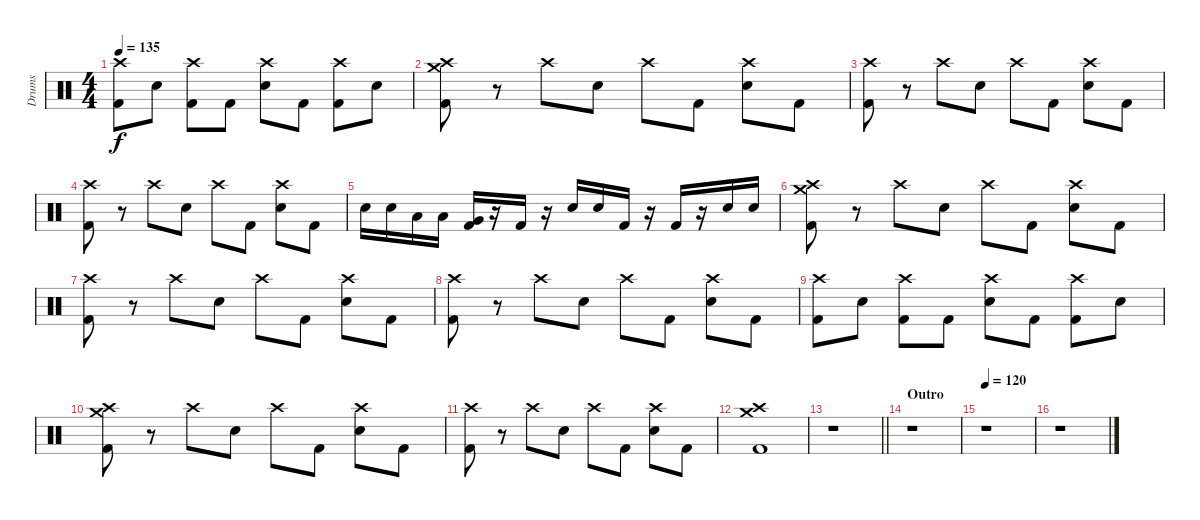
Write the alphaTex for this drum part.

\track ("Drums" "Drums") {instrument percussion}
\staff {score}
\articulation defaults
\ts (4 4)
\tempo 135
\clef neutral
\ks c
("Crash high (hit)" "Kick (hit) 2").8{dy f} "Electric Snare (hit)".8 ("Crash high (hit)" "Kick (hit) 2").8 "Kick (hit) 2".8 ("Crash high (hit)" "Electric Snare (hit)").8 "Kick (hit) 2".8 ("Crash high (hit)" "Kick (hit) 2").8 "Electric Snare (hit)".8 |
("Crash high (hit)" "Crash medium (hit)" "Kick (hit) 2").8 r.8 "Crash high (hit)".8 "Electric Snare (hit)".8 "Crash high (hit)".8 "Kick (hit) 2".8 ("Crash high (hit)" "Electric Snare (hit)").8 "Kick (hit) 2".8 |
("Crash high (hit)" "Kick (hit) 2").8 r.8 "Crash high (hit)".8 "Electric Snare (hit)".8 "Crash high (hit)".8 "Kick (hit) 2".8 ("Crash high (hit)" "Electric Snare (hit)").8 "Kick (hit) 2".8 |
("Crash high (hit)" "Kick (hit) 2").8 r.8 "Crash high (hit)".8 "Electric Snare (hit)".8 "Crash high (hit)".8 "Kick (hit) 2".8 ("Crash high (hit)" "Electric Snare (hit)").8 "Kick (hit) 2".8 |
"Electric Snare (hit)".16 "Electric Snare (hit)".16 "Low Tom (hit)".16 "Low Tom (hit)".16 ("Very Low Tom (hit)" "Kick (hit) 2").16 r.16 "Kick (hit) 2".16 r.16 "Electric Snare (hit)".16 "Electric Snare (hit)".16 "Kick (hit) 2".16 r.16 "Kick (hit) 2".16 r.16 "Electric Snare (hit)".16 "Electric Snare (hit)".16 |
("Crash high (hit)" "Crash medium (hit)" "Kick (hit) 2").8 r.8 "Crash high (hit)".8 "Electric Snare (hit)".8 "Crash high (hit)".8 "Kick (hit) 2".8 ("Crash high (hit)" "Electric Snare (hit)").8 "Kick (hit) 2".8 |
("Crash high (hit)" "Kick (hit) 2").8 r.8 "Crash high (hit)".8 "Electric Snare (hit)".8 "Crash high (hit)".8 "Kick (hit) 2".8 ("Crash high (hit)" "Electric Snare (hit)").8 "Kick (hit) 2".8 |
("Crash high (hit)" "Kick (hit) 2").8 r.8 "Crash high (hit)".8 "Electric Snare (hit)".8 "Crash high (hit)".8 "Kick (hit) 2".8 ("Crash high (hit)" "Electric Snare (hit)").8 "Kick (hit) 2".8 |
("Crash high (hit)" "Kick (hit) 2").8 "Electric Snare (hit)".8 ("Crash high (hit)" "Kick (hit) 2").8 "Kick (hit) 2".8 ("Crash high (hit)" "Electric Snare (hit)").8 "Kick (hit) 2".8 ("Crash high (hit)" "Kick (hit) 2").8 "Electric Snare (hit)".8 |
("Crash high (hit)" "Crash medium (hit)" "Kick (hit) 2").8 r.8 "Crash high (hit)".8 "Electric Snare (hit)".8 "Crash high (hit)".8 "Kick (hit) 2".8 ("Crash high (hit)" "Electric Snare (hit)").8 "Kick (hit) 2".8 |
("Crash high (hit)" "Kick (hit) 2").8 r.8 "Crash high (hit)".8 "Electric Snare (hit)".8 "Crash high (hit)".8 "Kick (hit) 2".8 ("Crash high (hit)" "Electric Snare (hit)").8 "Kick (hit) 2".8 |
("Crash high (hit)" "Crash medium (hit)" "Kick (hit) 2").1 |
\barLineRight lightlight
r.1 |
\section ("" "Outro")
r.1 |
\tempo 120
r.1 |
r.1
